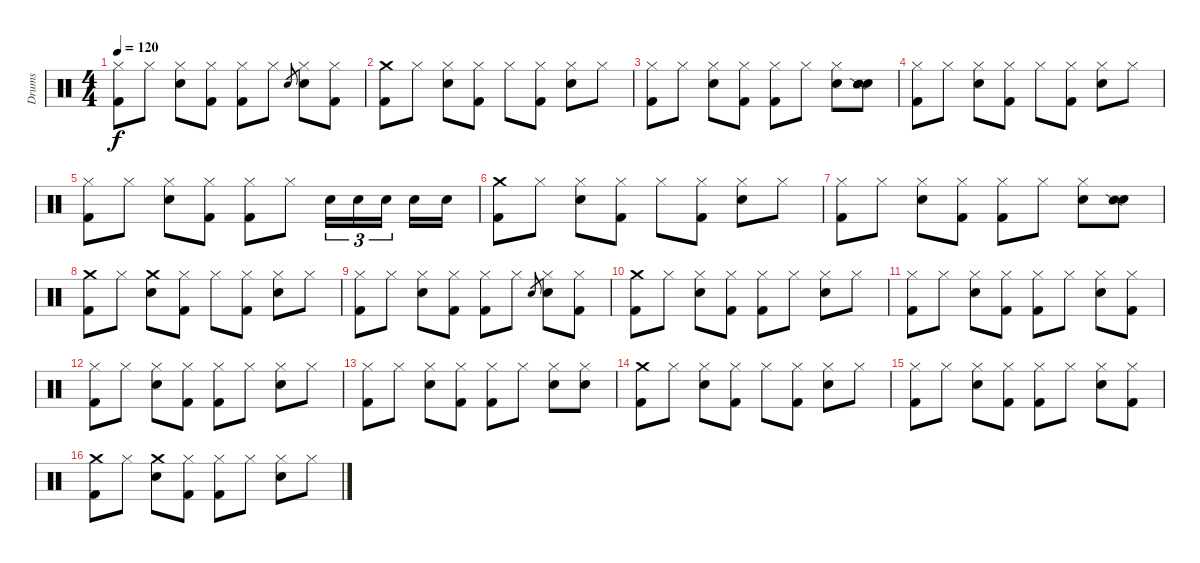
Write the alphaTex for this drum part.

\track ("Drums" "Drums") {instrument percussion}
\staff {score}
\articulation defaults
\ts (4 4)
\tempo 120
\clef neutral
\ks c
("Kick (hit) 2" "Hi-Hat (closed)").8{dy f} "Hi-Hat (closed)".8 ("Snare (hit) 2" "Hi-Hat (closed)").8 ("Kick (hit) 2" "Hi-Hat (closed)").8 ("Kick (hit) 2" "Hi-Hat (closed)").8 "Hi-Hat (closed)".8 "Snare (hit) 2".8{gr} ("Snare (hit) 2" "Hi-Hat (closed)").8 ("Kick (hit) 2" "Hi-Hat (closed)").8 |
("Kick (hit) 2" "Crash medium (hit)").8 "Hi-Hat (closed)".8 ("Snare (hit) 2" "Hi-Hat (closed)").8 ("Kick (hit) 2" "Hi-Hat (closed)").8 "Hi-Hat (closed)".8 ("Kick (hit) 2" "Hi-Hat (closed)").8 ("Snare (hit) 2" "Hi-Hat (closed)").8 "Hi-Hat (closed)".8 |
("Kick (hit) 2" "Hi-Hat (closed)").8 "Hi-Hat (closed)".8 ("Snare (hit) 2" "Hi-Hat (closed)").8 ("Kick (hit) 2" "Hi-Hat (closed)").8 ("Kick (hit) 2" "Hi-Hat (closed)").8 "Hi-Hat (closed)".8 ("Snare (hit) 2" "Hi-Hat (closed)").8 ("Snare (hit) 2" "Snare (side stick) 2").8 |
("Kick (hit) 2" "Hi-Hat (closed)").8 "Hi-Hat (closed)".8 ("Snare (hit) 2" "Hi-Hat (closed)").8 ("Kick (hit) 2" "Hi-Hat (closed)").8 "Hi-Hat (closed)".8 ("Kick (hit) 2" "Hi-Hat (closed)").8 ("Snare (hit) 2" "Hi-Hat (closed)").8 "Hi-Hat (closed)".8 |
("Kick (hit) 2" "Hi-Hat (closed)").8 "Hi-Hat (closed)".8 ("Snare (hit) 2" "Hi-Hat (closed)").8 ("Kick (hit) 2" "Hi-Hat (closed)").8 ("Kick (hit) 2" "Hi-Hat (closed)").8 "Hi-Hat (closed)".8 "Snare (hit) 2".16{tu (3 2)} "Snare (hit) 2".16{tu (3 2)} "Snare (hit) 2".16{tu (3 2)} "Snare (hit) 2".16 "Snare (hit) 2".16 |
("Kick (hit) 2" "Crash medium (hit)").8 "Hi-Hat (closed)".8 ("Snare (hit) 2" "Hi-Hat (closed)").8 ("Kick (hit) 2" "Hi-Hat (closed)").8 "Hi-Hat (closed)".8 ("Kick (hit) 2" "Hi-Hat (closed)").8 ("Snare (hit) 2" "Hi-Hat (closed)").8 "Hi-Hat (closed)".8 |
("Kick (hit) 2" "Hi-Hat (closed)").8 "Hi-Hat (closed)".8 ("Snare (hit) 2" "Hi-Hat (closed)").8 ("Kick (hit) 2" "Hi-Hat (closed)").8 ("Kick (hit) 2" "Hi-Hat (closed)").8 "Hi-Hat (closed)".8 ("Snare (hit) 2" "Hi-Hat (closed)").8 ("Snare (hit) 2" "Snare (side stick) 2").8 |
("Kick (hit) 2" "Crash medium (hit)").8 "Hi-Hat (closed)".8 ("Snare (hit) 2" "Crash medium (hit)").8 ("Kick (hit) 2" "Hi-Hat (closed)").8 "Hi-Hat (closed)".8 ("Kick (hit) 2" "Hi-Hat (closed)").8 ("Snare (hit) 2" "Hi-Hat (closed)").8 "Hi-Hat (closed)".8 |
("Kick (hit) 2" "Hi-Hat (closed)").8 "Hi-Hat (closed)".8 ("Snare (hit) 2" "Hi-Hat (closed)").8 ("Kick (hit) 2" "Hi-Hat (closed)").8 ("Kick (hit) 2" "Hi-Hat (closed)").8 "Hi-Hat (closed)".8 "Snare (hit) 2".8{gr} ("Snare (hit) 2" "Hi-Hat (closed)").8 ("Kick (hit) 2" "Hi-Hat (closed)").8 |
("Kick (hit) 2" "Crash medium (hit)").8 "Hi-Hat (closed)".8 ("Snare (hit) 2" "Hi-Hat (closed)").8 ("Kick (hit) 2" "Hi-Hat (closed)").8 ("Kick (hit) 2" "Hi-Hat (closed)").8 "Hi-Hat (closed)".8 ("Snare (hit) 2" "Hi-Hat (closed)").8 "Hi-Hat (closed)".8 |
("Kick (hit) 2" "Hi-Hat (closed)").8 "Hi-Hat (closed)".8 ("Snare (hit) 2" "Hi-Hat (closed)").8 ("Kick (hit) 2" "Hi-Hat (closed)").8 ("Kick (hit) 2" "Hi-Hat (closed)").8 "Hi-Hat (closed)".8 ("Snare (hit) 2" "Hi-Hat (closed)").8 ("Kick (hit) 2" "Hi-Hat (closed)").8 |
("Kick (hit) 2" "Hi-Hat (closed)").8 "Hi-Hat (closed)".8 ("Snare (hit) 2" "Hi-Hat (closed)").8 ("Kick (hit) 2" "Hi-Hat (closed)").8 ("Kick (hit) 2" "Hi-Hat (closed)").8 "Hi-Hat (closed)".8 ("Snare (hit) 2" "Hi-Hat (closed)").8 "Hi-Hat (closed)".8 |
("Kick (hit) 2" "Hi-Hat (closed)").8 "Hi-Hat (closed)".8 ("Snare (hit) 2" "Hi-Hat (closed)").8 ("Kick (hit) 2" "Hi-Hat (closed)").8 ("Kick (hit) 2" "Hi-Hat (closed)").8 "Hi-Hat (closed)".8 ("Snare (hit) 2" "Hi-Hat (closed)").8 ("Snare (hit) 2" "Hi-Hat (closed)").8 |
("Kick (hit) 2" "Crash medium (hit)").8 "Hi-Hat (closed)".8 ("Snare (hit) 2" "Hi-Hat (closed)").8 ("Kick (hit) 2" "Hi-Hat (closed)").8 "Hi-Hat (closed)".8 ("Kick (hit) 2" "Hi-Hat (closed)").8 ("Snare (hit) 2" "Hi-Hat (closed)").8 "Hi-Hat (closed)".8 |
("Kick (hit) 2" "Hi-Hat (closed)").8 "Hi-Hat (closed)".8 ("Snare (hit) 2" "Hi-Hat (closed)").8 ("Kick (hit) 2" "Hi-Hat (closed)").8 ("Kick (hit) 2" "Hi-Hat (closed)").8 "Hi-Hat (closed)".8 ("Snare (hit) 2" "Hi-Hat (closed)").8 ("Kick (hit) 2" "Hi-Hat (closed)").8 |
("Kick (hit) 2" "Crash medium (hit)").8 "Hi-Hat (closed)".8 ("Snare (hit) 2" "Crash medium (hit)").8 ("Kick (hit) 2" "Hi-Hat (closed)").8 ("Kick (hit) 2" "Hi-Hat (closed)").8 "Hi-Hat (closed)".8 ("Snare (hit) 2" "Hi-Hat (closed)").8 "Hi-Hat (closed)".8
